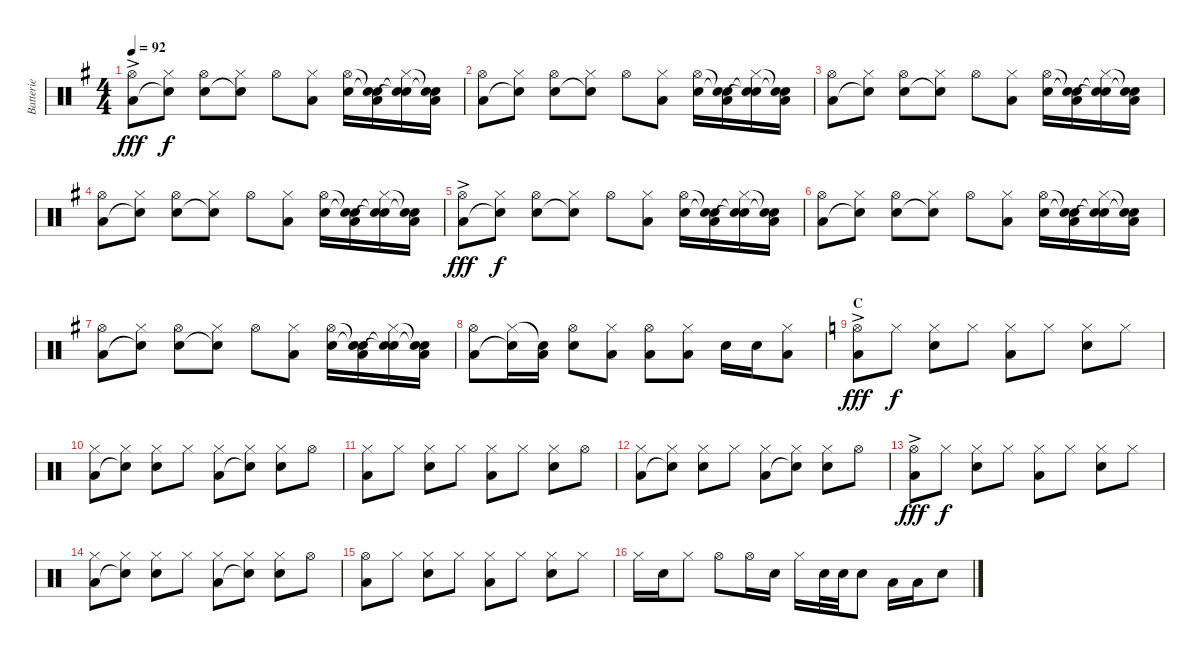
\track ("Batterie" "Batterie") {instrument percussion}
\staff {score}
\articulation defaults
\ts (4 4)
\tempo 92
\clef neutral
\ks g
("Hi-Hat (open)"{ac} "Low Floor Tom (hit)").8{dy fff} ("Hi-Hat (closed)" "Snare (hit)"{t}).8{dy f} ("Hi-Hat (open)" "Electric Snare (hit)").8 ("Hi-Hat (closed)" "Snare (hit)"{t}).8 "Hi-Hat (open)".8 ("Hi-Hat (closed)" "Low Floor Tom (hit)").8 ("Hi-Hat (open)" "Electric Snare (hit)").16 ("Snare (hit)"{t} "Snare (hit)"{t} "Low Floor Tom (hit)").16 ("Hi-Hat (closed)" "Snare (hit)"{t} "Snare (hit)"{t}).16 ("Snare (hit)"{t} "Snare (hit)"{t} "Low Floor Tom (hit)").16 |
("Hi-Hat (open)" "Low Floor Tom (hit)").8 ("Hi-Hat (closed)" "Snare (hit)"{t}).8 ("Hi-Hat (open)" "Electric Snare (hit)").8 ("Hi-Hat (closed)" "Snare (hit)"{t}).8 "Hi-Hat (open)".8 ("Hi-Hat (closed)" "Low Floor Tom (hit)").8 ("Hi-Hat (open)" "Electric Snare (hit)").16 ("Snare (hit)"{t} "Snare (hit)"{t} "Low Floor Tom (hit)").16 ("Hi-Hat (closed)" "Snare (hit)"{t} "Snare (hit)"{t}).16 ("Snare (hit)"{t} "Snare (hit)"{t} "Low Floor Tom (hit)").16 |
("Hi-Hat (open)" "Low Floor Tom (hit)").8 ("Hi-Hat (closed)" "Snare (hit)"{t}).8 ("Hi-Hat (open)" "Electric Snare (hit)").8 ("Hi-Hat (closed)" "Snare (hit)"{t}).8 "Hi-Hat (open)".8 ("Hi-Hat (closed)" "Low Floor Tom (hit)").8 ("Hi-Hat (open)" "Electric Snare (hit)").16 ("Snare (hit)"{t} "Snare (hit)"{t} "Low Floor Tom (hit)").16 ("Hi-Hat (closed)" "Snare (hit)"{t} "Snare (hit)"{t}).16 ("Snare (hit)"{t} "Snare (hit)"{t} "Low Floor Tom (hit)").16 |
("Hi-Hat (open)" "Low Floor Tom (hit)").8 ("Hi-Hat (closed)" "Snare (hit)"{t}).8 ("Hi-Hat (open)" "Electric Snare (hit)").8 ("Hi-Hat (closed)" "Snare (hit)"{t}).8 "Hi-Hat (open)".8 ("Hi-Hat (closed)" "Low Floor Tom (hit)").8 ("Hi-Hat (open)" "Electric Snare (hit)").16 ("Snare (hit)"{t} "Snare (hit)"{t} "Low Floor Tom (hit)").16 ("Hi-Hat (closed)" "Snare (hit)"{t} "Snare (hit)"{t}).16 ("Snare (hit)"{t} "Snare (hit)"{t} "Low Floor Tom (hit)").16 |
("Hi-Hat (open)"{ac} "Low Floor Tom (hit)").8{dy fff} ("Hi-Hat (closed)" "Snare (hit)"{t}).8{dy f} ("Hi-Hat (open)" "Electric Snare (hit)").8 ("Hi-Hat (closed)" "Snare (hit)"{t}).8 "Hi-Hat (open)".8 ("Hi-Hat (closed)" "Low Floor Tom (hit)").8 ("Hi-Hat (open)" "Electric Snare (hit)").16 ("Snare (hit)"{t} "Snare (hit)"{t} "Low Floor Tom (hit)").16 ("Hi-Hat (closed)" "Snare (hit)"{t} "Snare (hit)"{t}).16 ("Snare (hit)"{t} "Snare (hit)"{t} "Low Floor Tom (hit)").16 |
("Hi-Hat (open)" "Low Floor Tom (hit)").8 ("Hi-Hat (closed)" "Snare (hit)"{t}).8 ("Hi-Hat (open)" "Electric Snare (hit)").8 ("Hi-Hat (closed)" "Snare (hit)"{t}).8 "Hi-Hat (open)".8 ("Hi-Hat (closed)" "Low Floor Tom (hit)").8 ("Hi-Hat (open)" "Electric Snare (hit)").16 ("Snare (hit)"{t} "Snare (hit)"{t} "Low Floor Tom (hit)").16 ("Hi-Hat (closed)" "Snare (hit)"{t} "Snare (hit)"{t}).16 ("Snare (hit)"{t} "Snare (hit)"{t} "Low Floor Tom (hit)").16 |
("Hi-Hat (open)" "Low Floor Tom (hit)").8 ("Hi-Hat (closed)" "Snare (hit)"{t}).8 ("Hi-Hat (open)" "Electric Snare (hit)").8 ("Hi-Hat (closed)" "Snare (hit)"{t}).8 "Hi-Hat (open)".8 ("Hi-Hat (closed)" "Low Floor Tom (hit)").8 ("Hi-Hat (open)" "Electric Snare (hit)").16 ("Snare (hit)"{t} "Snare (hit)"{t} "Low Floor Tom (hit)").16 ("Hi-Hat (closed)" "Snare (hit)"{t} "Snare (hit)"{t}).16 ("Snare (hit)"{t} "Snare (hit)"{t} "Low Floor Tom (hit)").16 |
("Hi-Hat (open)" "Low Floor Tom (hit)").8 ("Hi-Hat (closed)" "Snare (hit)"{t}).16 ("Snare (hit)"{t} "Low Floor Tom (hit)").16 ("Hi-Hat (open)" "Electric Snare (hit)").8 ("Hi-Hat (closed)" "Low Floor Tom (hit)").8 ("Hi-Hat (open)" "Low Floor Tom (hit)").8 ("Hi-Hat (closed)" "Low Floor Tom (hit)").8 "Electric Snare (hit)".16 "Electric Snare (hit)".16 ("Hi-Hat (closed)" "Low Floor Tom (hit)").8 |
\section ("" "C")
\ks c
("Hi-Hat (open)"{ac} "Low Floor Tom (hit)").8{dy fff} "Hi-Hat (closed)".8{dy f} ("Hi-Hat (closed)" "Snare (hit) 2").8 "Hi-Hat (closed)".8 ("Hi-Hat (closed)" "Low Floor Tom (hit)").8 "Hi-Hat (closed)".8 ("Hi-Hat (closed)" "Snare (hit) 2").8 "Hi-Hat (closed)".8 |
("Hi-Hat (closed)" "Low Floor Tom (hit)").8 ("Hi-Hat (closed)" "Snare (hit)"{t}).8 ("Hi-Hat (closed)" "Snare (hit) 2").8 "Hi-Hat (closed)".8 ("Hi-Hat (closed)" "Low Floor Tom (hit)").8 ("Hi-Hat (closed)" "Snare (hit)"{t}).8 ("Hi-Hat (closed)" "Snare (hit) 2").8 "Hi-Hat (open)".8 |
("Hi-Hat (closed)" "Low Floor Tom (hit)").8 "Hi-Hat (closed)".8 ("Hi-Hat (closed)" "Snare (hit) 2").8 "Hi-Hat (closed)".8 ("Hi-Hat (closed)" "Low Floor Tom (hit)").8 "Hi-Hat (closed)".8 ("Hi-Hat (closed)" "Snare (hit) 2").8 "Hi-Hat (open)".8 |
("Hi-Hat (closed)" "Low Floor Tom (hit)").8 ("Hi-Hat (closed)" "Snare (hit)"{t}).8 ("Hi-Hat (closed)" "Snare (hit) 2").8 "Hi-Hat (closed)".8 ("Hi-Hat (closed)" "Low Floor Tom (hit)").8 ("Hi-Hat (closed)" "Snare (hit)"{t}).8 ("Hi-Hat (closed)" "Snare (hit) 2").8 "Hi-Hat (open)".8 |
("Hi-Hat (open)"{ac} "Low Floor Tom (hit)").8{dy fff} "Hi-Hat (closed)".8{dy f} ("Hi-Hat (closed)" "Snare (hit) 2").8 "Hi-Hat (closed)".8 ("Hi-Hat (closed)" "Low Floor Tom (hit)").8 "Hi-Hat (closed)".8 ("Hi-Hat (closed)" "Snare (hit) 2").8 "Hi-Hat (closed)".8 |
("Hi-Hat (closed)" "Low Floor Tom (hit)").8 ("Hi-Hat (closed)" "Snare (hit)"{t}).8 ("Hi-Hat (closed)" "Snare (hit) 2").8 "Hi-Hat (closed)".8 ("Hi-Hat (closed)" "Low Floor Tom (hit)").8 ("Hi-Hat (closed)" "Snare (hit)"{t}).8 ("Hi-Hat (closed)" "Snare (hit) 2").8 "Hi-Hat (open)".8 |
("Hi-Hat (open)" "Low Floor Tom (hit)").8 "Hi-Hat (closed)".8 ("Hi-Hat (closed)" "Snare (hit) 2").8 "Hi-Hat (closed)".8 ("Hi-Hat (closed)" "Low Floor Tom (hit)").8 "Hi-Hat (closed)".8 ("Hi-Hat (closed)" "Snare (hit) 2").8 "Hi-Hat (closed)".8 |
"Hi-Hat (closed)".16 "Electric Snare (hit)".16 "Hi-Hat (closed)".8 "Hi-Hat (open)".8 "Hi-Hat (open)".16 "Electric Snare (hit)".16 "Hi-Hat (closed)".16 "Electric Snare (hit)".32 "Electric Snare (hit)".32 "Electric Snare (hit)".8 "Low Tom (hit)".16 "Low Tom (hit)".16 "Snare (hit) 2".8
